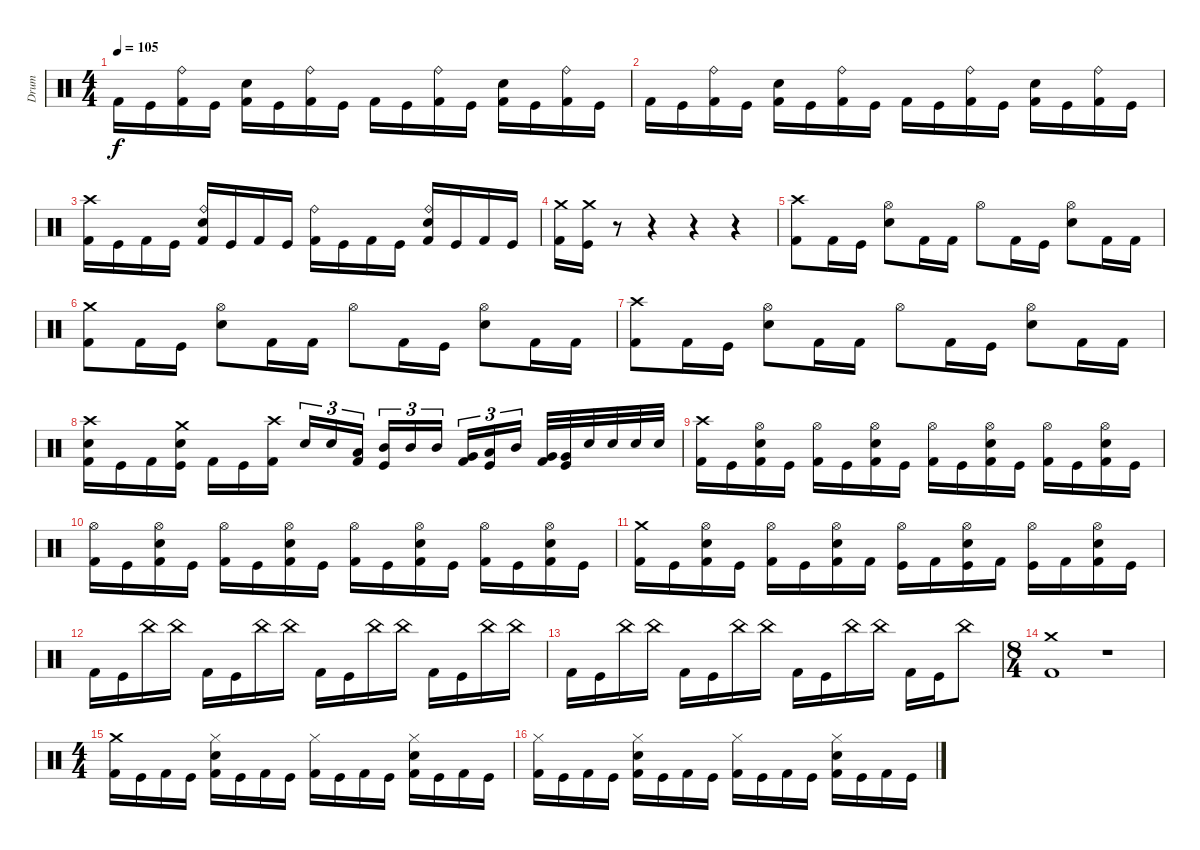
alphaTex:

\track ("Drum" "Drum") {instrument percussion}
\staff {score}
\articulation defaults
\ts (4 4)
\tempo 105
\clef neutral
\ks c "Kick (hit) 2".16{dy f} "Kick (hit)".16
("Ride (bell)" "Kick (hit) 2").16 "Kick (hit)".16 ("Snare (hit) 2" "Kick (hit) 2").16 "Kick (hit)".16 ("Ride (bell)" "Kick (hit) 2").16 "Kick (hit)".16 "Kick (hit) 2".16 "Kick (hit)".16 ("Ride (bell)" "Kick (hit) 2").16 "Kick (hit)".16 ("Snare (hit) 2" "Kick (hit) 2").16 "Kick (hit)".16 ("Ride (bell)" "Kick (hit) 2").16 "Kick (hit)".16 |
"Kick (hit) 2".16 "Kick (hit)".16 ("Ride (bell)" "Kick (hit) 2").16 "Kick (hit)".16 ("Snare (hit) 2" "Kick (hit) 2").16 "Kick (hit)".16 ("Ride (bell)" "Kick (hit) 2").16 "Kick (hit)".16 "Kick (hit) 2".16 "Kick (hit)".16 ("Ride (bell)" "Kick (hit) 2").16 "Kick (hit)".16 ("Snare (hit) 2" "Kick (hit) 2").16 "Kick (hit)".16 ("Ride (bell)" "Kick (hit) 2").16 "Kick (hit)".16 |
("Crash high (hit)" "Kick (hit) 2").16 "Kick (hit)".16 "Kick (hit) 2".16 "Kick (hit)".16 ("Ride (bell)" "Snare (hit) 2" "Kick (hit) 2").16 "Kick (hit)".16 "Kick (hit) 2".16 "Kick (hit)".16 ("Ride (bell)" "Kick (hit) 2").16 "Kick (hit)".16 "Kick (hit) 2".16 "Kick (hit)".16 ("Ride (bell)" "Snare (hit) 2" "Kick (hit) 2").16 "Kick (hit)".16 "Kick (hit) 2".16 "Kick (hit)".16 |
("Crash medium (hit)" "Kick (hit) 2").16 ("Crash medium (hit)" "Kick (hit)").16 r.8 r.4 r.4 r.4 |
("Crash high (hit)" "Kick (hit) 2").8 "Kick (hit) 2".16 "Kick (hit)".16 ("Hi-Hat (open)" "Snare (hit) 2").8 "Kick (hit) 2".16 "Kick (hit) 2".16 "Hi-Hat (open)".8 "Kick (hit) 2".16 "Kick (hit)".16 ("Hi-Hat (open)" "Snare (hit) 2").8 "Kick (hit) 2".16 "Kick (hit) 2".16 |
("Crash medium (hit)" "Kick (hit) 2").8 "Kick (hit) 2".16 "Kick (hit)".16 ("Hi-Hat (open)" "Snare (hit) 2").8 "Kick (hit) 2".16 "Kick (hit) 2".16 "Hi-Hat (open)".8 "Kick (hit) 2".16 "Kick (hit)".16 ("Hi-Hat (open)" "Snare (hit) 2").8 "Kick (hit) 2".16 "Kick (hit) 2".16 |
("Crash high (hit)" "Kick (hit) 2").8 "Kick (hit) 2".16 "Kick (hit)".16 ("Hi-Hat (open)" "Snare (hit) 2").8 "Kick (hit) 2".16 "Kick (hit) 2".16 "Hi-Hat (open)".8 "Kick (hit) 2".16 "Kick (hit)".16 ("Hi-Hat (open)" "Snare (hit) 2").8 "Kick (hit) 2".16 "Kick (hit) 2".16 |
("Crash high (hit)" "Snare (hit) 2" "Kick (hit) 2").16 "Kick (hit)".16 "Kick (hit) 2".16 ("Crash medium (hit)" "Snare (hit) 2" "Kick (hit)").16 "Kick (hit) 2".16 "Kick (hit)".16 ("Crash high (hit)" "Kick (hit) 2").16 "Snare (hit) 2".16{tu (3 2)} "Snare (hit) 2".16{tu (3 2)} ("Low Tom (hit)" "Kick (hit) 2").16{tu (3 2)} ("Mid Tom (hit)" "Kick (hit)").16{tu (3 2)} "Mid Tom (hit)".16{tu (3 2)} "Mid Tom (hit)".16{tu (3 2)} ("Very Low Tom (hit)" "Kick (hit) 2").16{tu (3 2)} ("Low Tom (hit)" "Kick (hit)").16{tu (3 2)} "Mid Tom (hit)".16{tu (3 2)} ("Very Low Tom (hit)" "Kick (hit) 2").32 ("Very Low Tom (hit)" "Kick (hit)").32 "Snare (hit) 2".32 "Snare (hit) 2".32 "Snare (hit) 2".32 "Snare (hit) 2".32 |
("Crash high (hit)" "Kick (hit) 2").16 "Kick (hit)".16 ("Hi-Hat (open)" "Snare (hit) 2" "Kick (hit) 2").16 "Kick (hit)".16 ("Hi-Hat (open)" "Kick (hit) 2").16 "Kick (hit)".16 ("Hi-Hat (open)" "Snare (hit) 2" "Kick (hit) 2").16 "Kick (hit)".16 ("Hi-Hat (open)" "Kick (hit) 2").16 "Kick (hit)".16 ("Hi-Hat (open)" "Snare (hit) 2" "Kick (hit) 2").16 "Kick (hit)".16 ("Hi-Hat (open)" "Kick (hit) 2").16 "Kick (hit)".16 ("Hi-Hat (open)" "Snare (hit) 2" "Kick (hit) 2").16 "Kick (hit)".16 |
("Hi-Hat (open)" "Kick (hit) 2").16 "Kick (hit)".16 ("Hi-Hat (open)" "Snare (hit) 2" "Kick (hit) 2").16 "Kick (hit)".16 ("Hi-Hat (open)" "Kick (hit) 2").16 "Kick (hit)".16 ("Hi-Hat (open)" "Snare (hit) 2" "Kick (hit) 2").16 "Kick (hit)".16 ("Hi-Hat (open)" "Kick (hit) 2").16 "Kick (hit)".16 ("Hi-Hat (open)" "Snare (hit) 2" "Kick (hit) 2").16 "Kick (hit)".16 ("Hi-Hat (open)" "Kick (hit) 2").16 "Kick (hit)".16 ("Hi-Hat (open)" "Snare (hit) 2" "Kick (hit) 2").16 "Kick (hit)".16 |
("Crash medium (hit)" "Kick (hit) 2").16 "Kick (hit)".16 ("Hi-Hat (open)" "Snare (hit) 2" "Kick (hit) 2").16 "Kick (hit)".16 ("Hi-Hat (open)" "Kick (hit) 2").16 "Kick (hit)".16 ("Hi-Hat (open)" "Snare (hit) 2" "Kick (hit) 2").16 "Kick (hit) 2".16 ("Hi-Hat (open)" "Kick (hit)").16 "Kick (hit) 2".16 ("Hi-Hat (open)" "Snare (hit) 2" "Kick (hit)").16 "Kick (hit) 2".16 ("Hi-Hat (open)" "Kick (hit)").16 "Kick (hit) 2".16 ("Hi-Hat (open)" "Snare (hit) 2" "Kick (hit) 2").16 "Kick (hit)".16 |
"Kick (hit) 2".16 "Kick (hit)".16 "China (hit)".16 "China (hit)".16 "Kick (hit) 2".16 "Kick (hit)".16 "China (hit)".16 "China (hit)".16 "Kick (hit) 2".16 "Kick (hit)".16 "China (hit)".16 "China (hit)".16 "Kick (hit) 2".16 "Kick (hit)".16 "China (hit)".16 "China (hit)".16 |
"Kick (hit) 2".16 "Kick (hit)".16 "China (hit)".16 "China (hit)".16 "Kick (hit) 2".16 "Kick (hit)".16 "China (hit)".16 "China (hit)".16 "Kick (hit) 2".16 "Kick (hit)".16 "China (hit)".16 "China (hit)".16 "Kick (hit) 2".16 "Kick (hit)".16 "China (hit)".8 |
\ts (8 4)
("Crash medium (hit)" "Kick (hit) 2").1 r.1 |
\ts (4 4)
("Crash medium (hit)" "Kick (hit) 2").16 "Kick (hit)".16 "Kick (hit) 2".16 "Kick (hit)".16 ("Hi-Hat (closed)" "Snare (hit) 2" "Kick (hit) 2").16 "Kick (hit)".16 "Kick (hit) 2".16 "Kick (hit)".16 ("Hi-Hat (closed)" "Kick (hit) 2").16 "Kick (hit)".16 "Kick (hit) 2".16 "Kick (hit)".16 ("Hi-Hat (closed)" "Snare (hit) 2" "Kick (hit) 2").16 "Kick (hit)".16 "Kick (hit) 2".16 "Kick (hit)".16 |
("Hi-Hat (closed)" "Kick (hit) 2").16 "Kick (hit)".16 "Kick (hit) 2".16 "Kick (hit)".16 ("Hi-Hat (closed)" "Snare (hit) 2" "Kick (hit) 2").16 "Kick (hit)".16 "Kick (hit) 2".16 "Kick (hit)".16 ("Hi-Hat (closed)" "Kick (hit) 2").16 "Kick (hit)".16 "Kick (hit) 2".16 "Kick (hit)".16 ("Hi-Hat (closed)" "Snare (hit) 2" "Kick (hit) 2").16 "Kick (hit)".16 "Kick (hit) 2".16 "Kick (hit)".16
